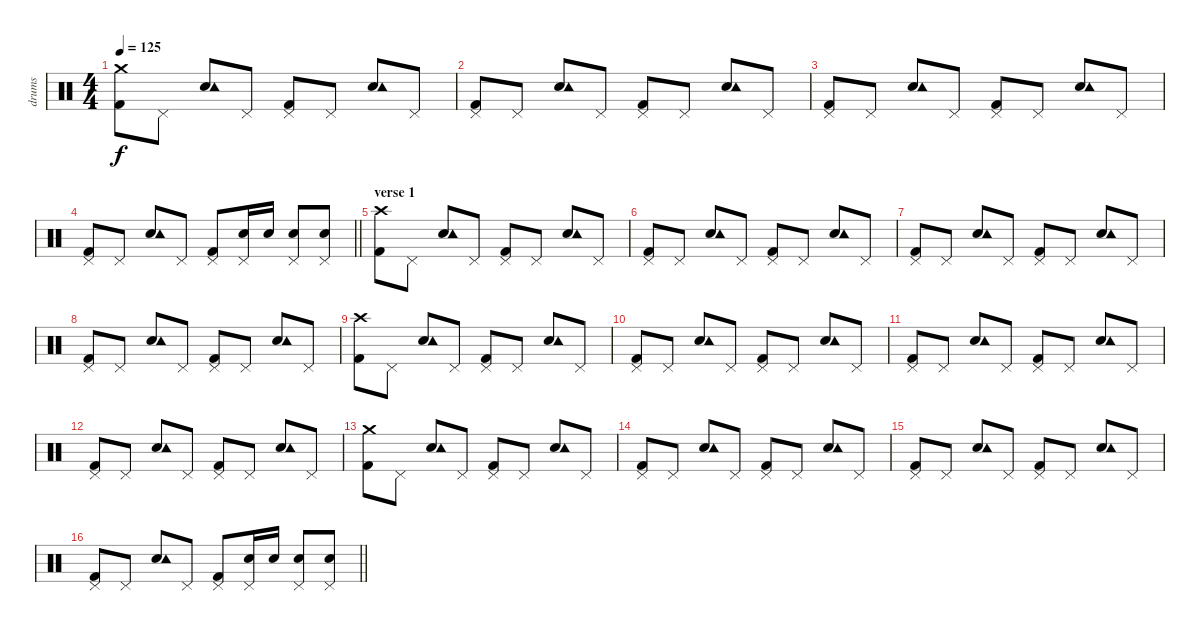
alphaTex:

\track ("drums" "drums") {instrument percussion}
\staff {score}
\articulation defaults
\ts (4 4)
\tempo 125
\clef neutral
\ks c
("Kick (hit) 2" "Crash medium (hit)").8{dy f} "Pedal Hi-Hat (hit)".8 ("Electric Snare (hit)" "Tambourine (hit)").8 "Pedal Hi-Hat (hit)".8 ("Kick (hit) 2" "Pedal Hi-Hat (hit)").8 "Pedal Hi-Hat (hit)".8 ("Electric Snare (hit)" "Tambourine (hit)").8 "Pedal Hi-Hat (hit)".8 |
("Kick (hit) 2" "Pedal Hi-Hat (hit)").8 "Pedal Hi-Hat (hit)".8 ("Electric Snare (hit)" "Tambourine (hit)").8 "Pedal Hi-Hat (hit)".8 ("Kick (hit) 2" "Pedal Hi-Hat (hit)").8 "Pedal Hi-Hat (hit)".8 ("Electric Snare (hit)" "Tambourine (hit)").8 "Pedal Hi-Hat (hit)".8 |
("Kick (hit) 2" "Pedal Hi-Hat (hit)").8 "Pedal Hi-Hat (hit)".8 ("Electric Snare (hit)" "Tambourine (hit)").8 "Pedal Hi-Hat (hit)".8 ("Kick (hit) 2" "Pedal Hi-Hat (hit)").8 "Pedal Hi-Hat (hit)".8 ("Electric Snare (hit)" "Tambourine (hit)").8 "Pedal Hi-Hat (hit)".8 |
\barLineRight lightlight
("Kick (hit) 2" "Pedal Hi-Hat (hit)").8 "Pedal Hi-Hat (hit)".8 ("Electric Snare (hit)" "Tambourine (hit)").8 "Pedal Hi-Hat (hit)".8 ("Kick (hit) 2" "Pedal Hi-Hat (hit)").8 ("Electric Snare (hit)" "Pedal Hi-Hat (hit)").16 "Electric Snare (hit)".16 ("Electric Snare (hit)" "Pedal Hi-Hat (hit)").8 ("Electric Snare (hit)" "Pedal Hi-Hat (hit)").8 |
\section ("" "verse 1")
("Kick (hit) 2" "Crash high (hit)").8 "Pedal Hi-Hat (hit)".8 ("Electric Snare (hit)" "Tambourine (hit)").8 "Pedal Hi-Hat (hit)".8 ("Kick (hit) 2" "Pedal Hi-Hat (hit)").8 "Pedal Hi-Hat (hit)".8 ("Electric Snare (hit)" "Tambourine (hit)").8 "Pedal Hi-Hat (hit)".8 |
("Kick (hit) 2" "Pedal Hi-Hat (hit)").8 "Pedal Hi-Hat (hit)".8 ("Electric Snare (hit)" "Tambourine (hit)").8 "Pedal Hi-Hat (hit)".8 ("Kick (hit) 2" "Pedal Hi-Hat (hit)").8 "Pedal Hi-Hat (hit)".8 ("Electric Snare (hit)" "Tambourine (hit)").8 "Pedal Hi-Hat (hit)".8 |
("Kick (hit) 2" "Pedal Hi-Hat (hit)").8 "Pedal Hi-Hat (hit)".8 ("Electric Snare (hit)" "Tambourine (hit)").8 "Pedal Hi-Hat (hit)".8 ("Kick (hit) 2" "Pedal Hi-Hat (hit)").8 "Pedal Hi-Hat (hit)".8 ("Electric Snare (hit)" "Tambourine (hit)").8 "Pedal Hi-Hat (hit)".8 |
("Kick (hit) 2" "Pedal Hi-Hat (hit)").8 "Pedal Hi-Hat (hit)".8 ("Electric Snare (hit)" "Tambourine (hit)").8 "Pedal Hi-Hat (hit)".8 ("Kick (hit) 2" "Pedal Hi-Hat (hit)").8 "Pedal Hi-Hat (hit)".8 ("Electric Snare (hit)" "Tambourine (hit)").8 "Pedal Hi-Hat (hit)".8 |
("Kick (hit) 2" "Crash high (hit)").8 "Pedal Hi-Hat (hit)".8 ("Electric Snare (hit)" "Tambourine (hit)").8 "Pedal Hi-Hat (hit)".8 ("Kick (hit) 2" "Pedal Hi-Hat (hit)").8 "Pedal Hi-Hat (hit)".8 ("Electric Snare (hit)" "Tambourine (hit)").8 "Pedal Hi-Hat (hit)".8 |
("Kick (hit) 2" "Pedal Hi-Hat (hit)").8 "Pedal Hi-Hat (hit)".8 ("Electric Snare (hit)" "Tambourine (hit)").8 "Pedal Hi-Hat (hit)".8 ("Kick (hit) 2" "Pedal Hi-Hat (hit)").8 "Pedal Hi-Hat (hit)".8 ("Electric Snare (hit)" "Tambourine (hit)").8 "Pedal Hi-Hat (hit)".8 |
("Kick (hit) 2" "Pedal Hi-Hat (hit)").8 "Pedal Hi-Hat (hit)".8 ("Electric Snare (hit)" "Tambourine (hit)").8 "Pedal Hi-Hat (hit)".8 ("Kick (hit) 2" "Pedal Hi-Hat (hit)").8 "Pedal Hi-Hat (hit)".8 ("Electric Snare (hit)" "Tambourine (hit)").8 "Pedal Hi-Hat (hit)".8 |
("Kick (hit) 2" "Pedal Hi-Hat (hit)").8 "Pedal Hi-Hat (hit)".8 ("Electric Snare (hit)" "Tambourine (hit)").8 "Pedal Hi-Hat (hit)".8 ("Kick (hit) 2" "Pedal Hi-Hat (hit)").8 "Pedal Hi-Hat (hit)".8 ("Electric Snare (hit)" "Tambourine (hit)").8 "Pedal Hi-Hat (hit)".8 |
("Kick (hit) 2" "Crash medium (hit)").8 "Pedal Hi-Hat (hit)".8 ("Electric Snare (hit)" "Tambourine (hit)").8 "Pedal Hi-Hat (hit)".8 ("Kick (hit) 2" "Pedal Hi-Hat (hit)").8 "Pedal Hi-Hat (hit)".8 ("Electric Snare (hit)" "Tambourine (hit)").8 "Pedal Hi-Hat (hit)".8 |
("Kick (hit) 2" "Pedal Hi-Hat (hit)").8 "Pedal Hi-Hat (hit)".8 ("Electric Snare (hit)" "Tambourine (hit)").8 "Pedal Hi-Hat (hit)".8 ("Kick (hit) 2" "Pedal Hi-Hat (hit)").8 "Pedal Hi-Hat (hit)".8 ("Electric Snare (hit)" "Tambourine (hit)").8 "Pedal Hi-Hat (hit)".8 |
("Kick (hit) 2" "Pedal Hi-Hat (hit)").8 "Pedal Hi-Hat (hit)".8 ("Electric Snare (hit)" "Tambourine (hit)").8 "Pedal Hi-Hat (hit)".8 ("Kick (hit) 2" "Pedal Hi-Hat (hit)").8 "Pedal Hi-Hat (hit)".8 ("Electric Snare (hit)" "Tambourine (hit)").8 "Pedal Hi-Hat (hit)".8 |
\barLineRight lightlight
("Kick (hit) 2" "Pedal Hi-Hat (hit)").8 "Pedal Hi-Hat (hit)".8 ("Electric Snare (hit)" "Tambourine (hit)").8 "Pedal Hi-Hat (hit)".8 ("Kick (hit) 2" "Pedal Hi-Hat (hit)").8 ("Electric Snare (hit)" "Pedal Hi-Hat (hit)").16 "Electric Snare (hit)".16 ("Electric Snare (hit)" "Pedal Hi-Hat (hit)").8 ("Electric Snare (hit)" "Pedal Hi-Hat (hit)").8
